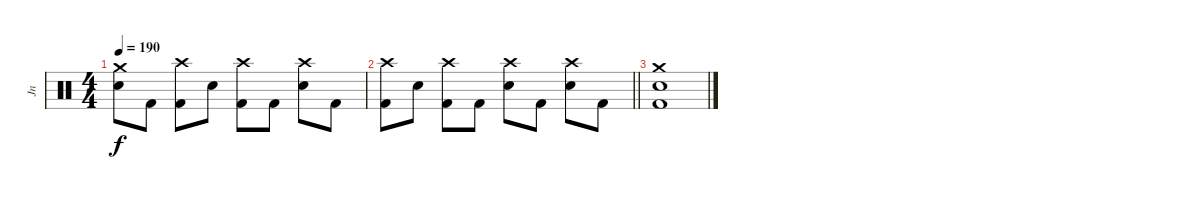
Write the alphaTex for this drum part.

\track ("Jn" "Jn") {instrument percussion}
\staff {score}
\articulation defaults
\ts (4 4)
\tempo 190
\clef neutral
\ks c
("Crash medium (hit)" "Electric Snare (hit)").8{dy f} "Kick (hit) 2".8 ("Crash high (hit)" "Kick (hit) 2").8 "Electric Snare (hit)".8 ("Crash high (hit)" "Kick (hit) 2").8 "Kick (hit) 2".8 ("Crash high (hit)" "Electric Snare (hit)").8 "Kick (hit) 2".8 |
\barLineRight lightlight
("Crash high (hit)" "Kick (hit) 2").8 "Electric Snare (hit)".8 ("Crash high (hit)" "Kick (hit) 2").8 "Kick (hit) 2".8 ("Crash high (hit)" "Electric Snare (hit)").8 "Kick (hit) 2".8 ("Crash high (hit)" "Electric Snare (hit)").8 "Kick (hit) 2".8 |
("Crash medium (hit)" "Electric Snare (hit)" "Kick (hit) 2").1
